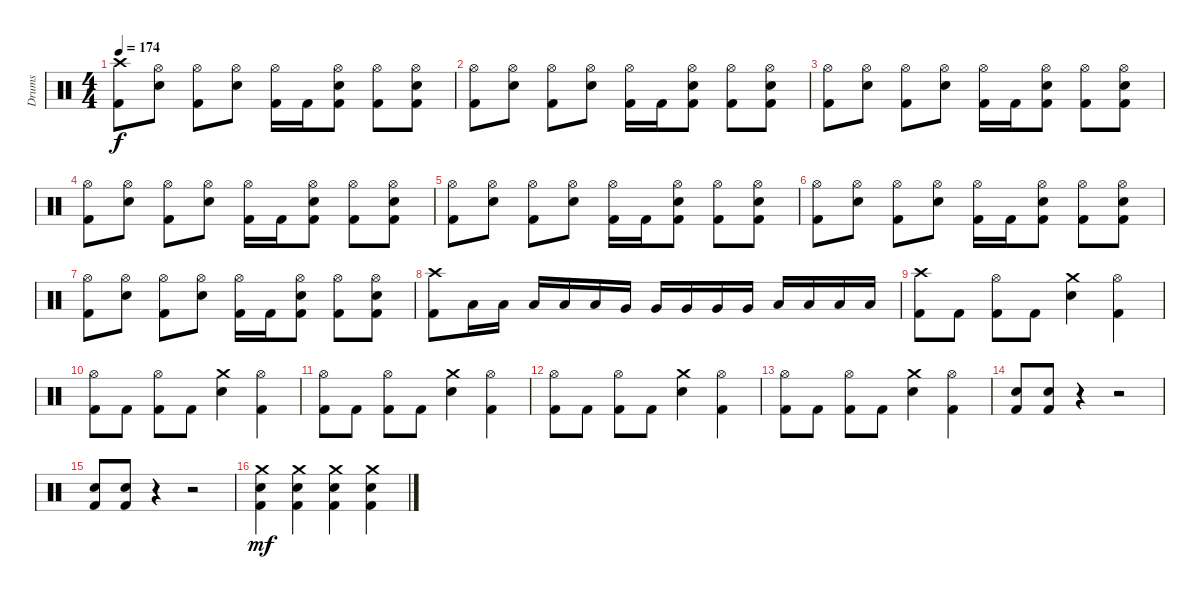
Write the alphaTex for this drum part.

\track ("Drums" "Drums") {instrument percussion}
\staff {score}
\articulation defaults
\ts (4 4)
\tempo 174
\clef neutral
\ks c
("Crash high (hit)" "Kick (hit) 2").8{dy f} ("Hi-Hat (open)" "Electric Snare (hit)").8 ("Hi-Hat (open)" "Kick (hit) 2").8 ("Hi-Hat (open)" "Electric Snare (hit)").8 ("Hi-Hat (open)" "Kick (hit) 2").16 "Kick (hit) 2".16 ("Hi-Hat (open)" "Electric Snare (hit)" "Kick (hit) 2").8 ("Hi-Hat (open)" "Kick (hit) 2").8 ("Hi-Hat (open)" "Electric Snare (hit)" "Kick (hit) 2").8 |
("Hi-Hat (open)" "Kick (hit) 2").8 ("Hi-Hat (open)" "Electric Snare (hit)").8 ("Hi-Hat (open)" "Kick (hit) 2").8 ("Hi-Hat (open)" "Electric Snare (hit)").8 ("Hi-Hat (open)" "Kick (hit) 2").16 "Kick (hit) 2".16 ("Hi-Hat (open)" "Electric Snare (hit)" "Kick (hit) 2").8 ("Hi-Hat (open)" "Kick (hit) 2").8 ("Hi-Hat (open)" "Electric Snare (hit)" "Kick (hit) 2").8 |
("Hi-Hat (open)" "Kick (hit) 2").8 ("Hi-Hat (open)" "Electric Snare (hit)").8 ("Hi-Hat (open)" "Kick (hit) 2").8 ("Hi-Hat (open)" "Electric Snare (hit)").8 ("Hi-Hat (open)" "Kick (hit) 2").16 "Kick (hit) 2".16 ("Hi-Hat (open)" "Electric Snare (hit)" "Kick (hit) 2").8 ("Hi-Hat (open)" "Kick (hit) 2").8 ("Hi-Hat (open)" "Electric Snare (hit)" "Kick (hit) 2").8 |
("Hi-Hat (open)" "Kick (hit) 2").8 ("Hi-Hat (open)" "Electric Snare (hit)").8 ("Hi-Hat (open)" "Kick (hit) 2").8 ("Hi-Hat (open)" "Electric Snare (hit)").8 ("Hi-Hat (open)" "Kick (hit) 2").16 "Kick (hit) 2".16 ("Hi-Hat (open)" "Electric Snare (hit)" "Kick (hit) 2").8 ("Hi-Hat (open)" "Kick (hit) 2").8 ("Hi-Hat (open)" "Electric Snare (hit)" "Kick (hit) 2").8 |
("Hi-Hat (open)" "Kick (hit) 2").8 ("Hi-Hat (open)" "Electric Snare (hit)").8 ("Hi-Hat (open)" "Kick (hit) 2").8 ("Hi-Hat (open)" "Electric Snare (hit)").8 ("Hi-Hat (open)" "Kick (hit) 2").16 "Kick (hit) 2".16 ("Hi-Hat (open)" "Electric Snare (hit)" "Kick (hit) 2").8 ("Hi-Hat (open)" "Kick (hit) 2").8 ("Hi-Hat (open)" "Electric Snare (hit)" "Kick (hit) 2").8 |
("Hi-Hat (open)" "Kick (hit) 2").8 ("Hi-Hat (open)" "Electric Snare (hit)").8 ("Hi-Hat (open)" "Kick (hit) 2").8 ("Hi-Hat (open)" "Electric Snare (hit)").8 ("Hi-Hat (open)" "Kick (hit) 2").16 "Kick (hit) 2".16 ("Hi-Hat (open)" "Electric Snare (hit)" "Kick (hit) 2").8 ("Hi-Hat (open)" "Kick (hit) 2").8 ("Hi-Hat (open)" "Electric Snare (hit)" "Kick (hit) 2").8 |
("Hi-Hat (open)" "Kick (hit) 2").8 ("Hi-Hat (open)" "Electric Snare (hit)").8 ("Hi-Hat (open)" "Kick (hit) 2").8 ("Hi-Hat (open)" "Electric Snare (hit)").8 ("Hi-Hat (open)" "Kick (hit) 2").16 "Kick (hit) 2".16 ("Hi-Hat (open)" "Electric Snare (hit)" "Kick (hit) 2").8 ("Hi-Hat (open)" "Kick (hit) 2").8 ("Hi-Hat (open)" "Electric Snare (hit)" "Kick (hit) 2").8 |
("Crash high (hit)" "Kick (hit) 2").8 "Low Tom (hit)".16 "Low Tom (hit)".16 "Low Tom (hit)".16 "Low Tom (hit)".16 "Low Tom (hit)".16 "Very Low Tom (hit)".16 "Very Low Tom (hit)".16 "Very Low Tom (hit)".16 "Very Low Tom (hit)".16 "Very Low Tom (hit)".16 "Low Floor Tom (hit)".16 "Low Floor Tom (hit)".16 "Low Floor Tom (hit)".16 "Low Floor Tom (hit)".16 |
("Crash high (hit)" "Kick (hit) 2").8 "Kick (hit) 2".8 ("Hi-Hat (open)" "Kick (hit) 2").8 "Kick (hit) 2".8 ("Crash medium (hit)" "Electric Snare (hit)").4 ("Hi-Hat (open)" "Kick (hit) 2").4 |
("Hi-Hat (open)" "Kick (hit) 2").8 "Kick (hit) 2".8 ("Hi-Hat (open)" "Kick (hit) 2").8 "Kick (hit) 2".8 ("Crash medium (hit)" "Electric Snare (hit)").4 ("Hi-Hat (open)" "Kick (hit) 2").4 |
("Hi-Hat (open)" "Kick (hit) 2").8 "Kick (hit) 2".8 ("Hi-Hat (open)" "Kick (hit) 2").8 "Kick (hit) 2".8 ("Crash medium (hit)" "Electric Snare (hit)").4 ("Hi-Hat (open)" "Kick (hit) 2").4 |
("Hi-Hat (open)" "Kick (hit) 2").8 "Kick (hit) 2".8 ("Hi-Hat (open)" "Kick (hit) 2").8 "Kick (hit) 2".8 ("Crash medium (hit)" "Electric Snare (hit)").4 ("Hi-Hat (open)" "Kick (hit) 2").4 |
("Hi-Hat (open)" "Kick (hit) 2").8 "Kick (hit) 2".8 ("Hi-Hat (open)" "Kick (hit) 2").8 "Kick (hit) 2".8 ("Crash medium (hit)" "Electric Snare (hit)").4 ("Hi-Hat (open)" "Kick (hit) 2").4 |
("Kick (hit) 2" "Electric Snare (hit)").8 ("Kick (hit) 2" "Electric Snare (hit)").8 r.4 r.2 |
("Kick (hit) 2" "Electric Snare (hit)").8 ("Kick (hit) 2" "Electric Snare (hit)").8 r.4 r.2 |
("Crash medium (hit)" "Kick (hit) 2" "Electric Snare (hit)").4{dy mf} ("Crash medium (hit)" "Kick (hit) 2" "Electric Snare (hit)").4 ("Crash medium (hit)" "Kick (hit) 2" "Electric Snare (hit)").4 ("Crash medium (hit)" "Kick (hit) 2" "Electric Snare (hit)").4
